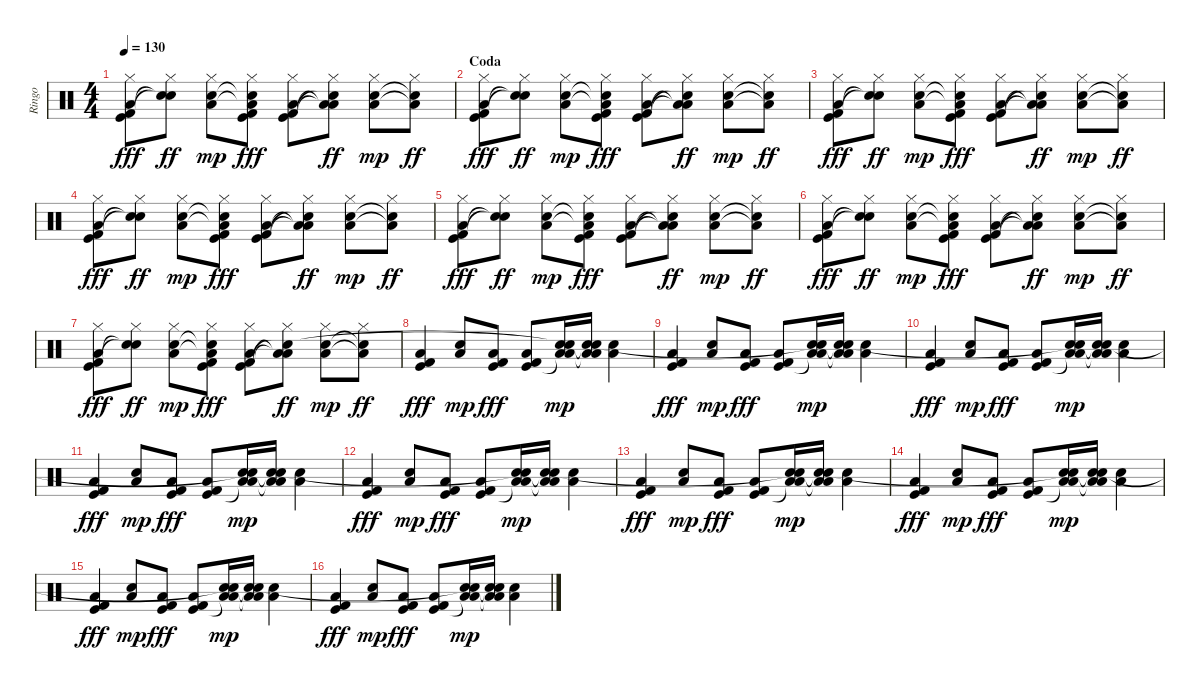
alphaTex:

\track ("Ringo" "Ringo") {instrument percussion}
\staff {score}
\articulation defaults
\ts (4 4)
\tempo 130
\clef neutral
\ks c
("Hi-Hat (closed)" "Low Floor Tom (hit)" "Kick (hit) 2" "Kick (hit)").8{dy fff} ("Hi-Hat (closed)" "Snare (hit)"{t} "Snare (hit)"{t}).8{dy ff} ("Hi-Hat (closed)" "Low Floor Tom (hit)" "Snare (hit) 2").8{dy mp} ("Hi-Hat (closed)" "Low Floor Tom (hit)"{t} "Snare (hit)"{t} "Kick (hit) 2" "Kick (hit)").8{dy fff} ("Hi-Hat (closed)" "Low Floor Tom (hit)" "Kick (hit) 2" "Kick (hit)").8 ("Hi-Hat (closed)" "Low Floor Tom (hit)"{t} "Low Floor Tom (hit)"{t} "Snare (hit)"{t}).8{dy ff} ("Hi-Hat (closed)" "Low Floor Tom (hit)" "Snare (hit) 2").8{dy mp} ("Hi-Hat (closed)" "Low Floor Tom (hit)"{t} "Snare (hit) 2"{t}).8{dy ff} |
\section ("" "Coda")
("Hi-Hat (closed)" "Low Floor Tom (hit)" "Kick (hit) 2" "Kick (hit)").8{dy fff} ("Hi-Hat (closed)" "Snare (hit)"{t} "Snare (hit)"{t}).8{dy ff} ("Hi-Hat (closed)" "Low Floor Tom (hit)" "Snare (hit) 2").8{dy mp} ("Hi-Hat (closed)" "Low Floor Tom (hit)"{t} "Snare (hit)"{t} "Kick (hit) 2" "Kick (hit)").8{dy fff} ("Hi-Hat (closed)" "Low Floor Tom (hit)" "Kick (hit) 2" "Kick (hit)").8 ("Hi-Hat (closed)" "Low Floor Tom (hit)"{t} "Low Floor Tom (hit)"{t} "Snare (hit)"{t}).8{dy ff} ("Hi-Hat (closed)" "Low Floor Tom (hit)" "Snare (hit) 2").8{dy mp} ("Hi-Hat (closed)" "Low Floor Tom (hit)"{t} "Snare (hit) 2"{t}).8{dy ff} |
("Hi-Hat (closed)" "Low Floor Tom (hit)" "Kick (hit) 2" "Kick (hit)").8{dy fff} ("Hi-Hat (closed)" "Snare (hit)"{t} "Snare (hit)"{t}).8{dy ff} ("Hi-Hat (closed)" "Low Floor Tom (hit)" "Snare (hit) 2").8{dy mp} ("Hi-Hat (closed)" "Low Floor Tom (hit)"{t} "Snare (hit)"{t} "Kick (hit) 2" "Kick (hit)").8{dy fff} ("Hi-Hat (closed)" "Low Floor Tom (hit)" "Kick (hit) 2" "Kick (hit)").8 ("Hi-Hat (closed)" "Low Floor Tom (hit)"{t} "Low Floor Tom (hit)"{t} "Snare (hit)"{t}).8{dy ff} ("Hi-Hat (closed)" "Low Floor Tom (hit)" "Snare (hit) 2").8{dy mp} ("Hi-Hat (closed)" "Low Floor Tom (hit)"{t} "Snare (hit) 2"{t}).8{dy ff} |
("Hi-Hat (closed)" "Low Floor Tom (hit)" "Kick (hit) 2" "Kick (hit)").8{dy fff} ("Hi-Hat (closed)" "Snare (hit)"{t} "Snare (hit)"{t}).8{dy ff} ("Hi-Hat (closed)" "Low Floor Tom (hit)" "Snare (hit) 2").8{dy mp} ("Hi-Hat (closed)" "Low Floor Tom (hit)"{t} "Snare (hit)"{t} "Kick (hit) 2" "Kick (hit)").8{dy fff} ("Hi-Hat (closed)" "Low Floor Tom (hit)" "Kick (hit) 2" "Kick (hit)").8 ("Hi-Hat (closed)" "Low Floor Tom (hit)"{t} "Low Floor Tom (hit)"{t} "Snare (hit)"{t}).8{dy ff} ("Hi-Hat (closed)" "Low Floor Tom (hit)" "Snare (hit) 2").8{dy mp} ("Hi-Hat (closed)" "Low Floor Tom (hit)"{t} "Snare (hit) 2"{t}).8{dy ff} |
("Hi-Hat (closed)" "Low Floor Tom (hit)" "Kick (hit) 2" "Kick (hit)").8{dy fff} ("Hi-Hat (closed)" "Snare (hit)"{t} "Snare (hit)"{t}).8{dy ff} ("Hi-Hat (closed)" "Low Floor Tom (hit)" "Snare (hit) 2").8{dy mp} ("Hi-Hat (closed)" "Low Floor Tom (hit)"{t} "Snare (hit)"{t} "Kick (hit) 2" "Kick (hit)").8{dy fff} ("Hi-Hat (closed)" "Low Floor Tom (hit)" "Kick (hit) 2" "Kick (hit)").8 ("Hi-Hat (closed)" "Low Floor Tom (hit)"{t} "Low Floor Tom (hit)"{t} "Snare (hit)"{t}).8{dy ff} ("Hi-Hat (closed)" "Low Floor Tom (hit)" "Snare (hit) 2").8{dy mp} ("Hi-Hat (closed)" "Low Floor Tom (hit)"{t} "Snare (hit) 2"{t}).8{dy ff} |
("Hi-Hat (closed)" "Low Floor Tom (hit)" "Kick (hit) 2" "Kick (hit)").8{dy fff} ("Hi-Hat (closed)" "Snare (hit)"{t} "Snare (hit)"{t}).8{dy ff} ("Hi-Hat (closed)" "Low Floor Tom (hit)" "Snare (hit) 2").8{dy mp} ("Hi-Hat (closed)" "Low Floor Tom (hit)"{t} "Snare (hit)"{t} "Kick (hit) 2" "Kick (hit)").8{dy fff} ("Hi-Hat (closed)" "Low Floor Tom (hit)" "Kick (hit) 2" "Kick (hit)").8 ("Hi-Hat (closed)" "Low Floor Tom (hit)"{t} "Low Floor Tom (hit)"{t} "Snare (hit)"{t}).8{dy ff} ("Hi-Hat (closed)" "Low Floor Tom (hit)" "Snare (hit) 2").8{dy mp} ("Hi-Hat (closed)" "Low Floor Tom (hit)"{t} "Snare (hit) 2"{t}).8{dy ff} |
("Hi-Hat (closed)" "Low Floor Tom (hit)" "Kick (hit) 2" "Kick (hit)").8{dy fff} ("Hi-Hat (closed)" "Snare (hit)"{t} "Snare (hit)"{t}).8{dy ff} ("Hi-Hat (closed)" "Low Floor Tom (hit)" "Snare (hit) 2").8{dy mp} ("Hi-Hat (closed)" "Low Floor Tom (hit)"{t} "Snare (hit)"{t} "Kick (hit) 2" "Kick (hit)").8{dy fff} ("Hi-Hat (closed)" "Low Floor Tom (hit)" "Kick (hit) 2" "Kick (hit)").8 ("Hi-Hat (closed)" "Low Floor Tom (hit)"{t} "Low Floor Tom (hit)"{t} "Snare (hit)"{t}).8{dy ff} ("Hi-Hat (closed)" "Low Floor Tom (hit)" "Snare (hit) 2").8{dy mp} ("Hi-Hat (closed)" "Low Floor Tom (hit)"{t} "Snare (hit) 2"{t}).8{dy ff} |
("Low Floor Tom (hit)" "Kick (hit) 2" "Kick (hit)").4{dy fff volume 16} ("Low Floor Tom (hit)" "Snare (hit) 2").8{dy mp} ("Low Floor Tom (hit)" "Kick (hit) 2" "Kick (hit)").8{dy fff} ("Low Floor Tom (hit)" "Kick (hit) 2" "Kick (hit)").8 ("Low Floor Tom (hit)" "Snare (hit) 2" "Low Floor Tom (hit)"{t} "Snare (hit)"{t}).16{dy mp} ("Low Floor Tom (hit)" "Snare (hit) 2" "Low Floor Tom (hit)"{t} "Snare (hit)"{t}).16 ("Low Floor Tom (hit)" "Snare (hit) 2").4 |
("Low Floor Tom (hit)" "Kick (hit) 2" "Kick (hit)").4{dy fff} ("Low Floor Tom (hit)" "Snare (hit) 2").8{dy mp} ("Low Floor Tom (hit)" "Kick (hit) 2" "Kick (hit)").8{dy fff} ("Low Floor Tom (hit)" "Kick (hit) 2" "Kick (hit)").8 ("Low Floor Tom (hit)" "Snare (hit) 2" "Low Floor Tom (hit)"{t} "Snare (hit)"{t}).16{dy mp} ("Low Floor Tom (hit)" "Snare (hit) 2" "Low Floor Tom (hit)"{t} "Snare (hit)"{t}).16 ("Low Floor Tom (hit)" "Snare (hit) 2").4 |
("Low Floor Tom (hit)" "Kick (hit) 2" "Kick (hit)").4{dy fff} ("Low Floor Tom (hit)" "Snare (hit) 2").8{dy mp} ("Low Floor Tom (hit)" "Kick (hit) 2" "Kick (hit)").8{dy fff} ("Low Floor Tom (hit)" "Kick (hit) 2" "Kick (hit)").8 ("Low Floor Tom (hit)" "Snare (hit) 2" "Low Floor Tom (hit)"{t} "Snare (hit)"{t}).16{dy mp} ("Low Floor Tom (hit)" "Snare (hit) 2" "Low Floor Tom (hit)"{t} "Snare (hit)"{t}).16 ("Low Floor Tom (hit)" "Snare (hit) 2").4 |
("Low Floor Tom (hit)" "Kick (hit) 2" "Kick (hit)").4{dy fff} ("Low Floor Tom (hit)" "Snare (hit) 2").8{dy mp} ("Low Floor Tom (hit)" "Kick (hit) 2" "Kick (hit)").8{dy fff} ("Low Floor Tom (hit)" "Kick (hit) 2" "Kick (hit)").8 ("Low Floor Tom (hit)" "Snare (hit) 2" "Low Floor Tom (hit)"{t} "Snare (hit)"{t}).16{dy mp} ("Low Floor Tom (hit)" "Snare (hit) 2" "Low Floor Tom (hit)"{t} "Snare (hit)"{t}).16 ("Low Floor Tom (hit)" "Snare (hit) 2").4 |
("Low Floor Tom (hit)" "Kick (hit) 2" "Kick (hit)").4{dy fff} ("Low Floor Tom (hit)" "Snare (hit) 2").8{dy mp} ("Low Floor Tom (hit)" "Kick (hit) 2" "Kick (hit)").8{dy fff} ("Low Floor Tom (hit)" "Kick (hit) 2" "Kick (hit)").8 ("Low Floor Tom (hit)" "Snare (hit) 2" "Low Floor Tom (hit)"{t} "Snare (hit)"{t}).16{dy mp} ("Low Floor Tom (hit)" "Snare (hit) 2" "Low Floor Tom (hit)"{t} "Snare (hit)"{t}).16 ("Low Floor Tom (hit)" "Snare (hit) 2").4 |
("Low Floor Tom (hit)" "Kick (hit) 2" "Kick (hit)").4{dy fff} ("Low Floor Tom (hit)" "Snare (hit) 2").8{dy mp} ("Low Floor Tom (hit)" "Kick (hit) 2" "Kick (hit)").8{dy fff} ("Low Floor Tom (hit)" "Kick (hit) 2" "Kick (hit)").8 ("Low Floor Tom (hit)" "Snare (hit) 2" "Low Floor Tom (hit)"{t} "Snare (hit)"{t}).16{dy mp} ("Low Floor Tom (hit)" "Snare (hit) 2" "Low Floor Tom (hit)"{t} "Snare (hit)"{t}).16 ("Low Floor Tom (hit)" "Snare (hit) 2").4 |
("Low Floor Tom (hit)" "Kick (hit) 2" "Kick (hit)").4{dy fff} ("Low Floor Tom (hit)" "Snare (hit) 2").8{dy mp} ("Low Floor Tom (hit)" "Kick (hit) 2" "Kick (hit)").8{dy fff} ("Low Floor Tom (hit)" "Kick (hit) 2" "Kick (hit)").8 ("Low Floor Tom (hit)" "Snare (hit) 2" "Low Floor Tom (hit)"{t} "Snare (hit)"{t}).16{dy mp} ("Low Floor Tom (hit)" "Snare (hit) 2" "Low Floor Tom (hit)"{t} "Snare (hit)"{t}).16 ("Low Floor Tom (hit)" "Snare (hit) 2").4 |
("Low Floor Tom (hit)" "Kick (hit) 2" "Kick (hit)").4{dy fff} ("Low Floor Tom (hit)" "Snare (hit) 2").8{dy mp} ("Low Floor Tom (hit)" "Kick (hit) 2" "Kick (hit)").8{dy fff} ("Low Floor Tom (hit)" "Kick (hit) 2" "Kick (hit)").8 ("Low Floor Tom (hit)" "Snare (hit) 2" "Low Floor Tom (hit)"{t} "Snare (hit)"{t}).16{dy mp} ("Low Floor Tom (hit)" "Snare (hit) 2" "Low Floor Tom (hit)"{t} "Snare (hit)"{t}).16 ("Low Floor Tom (hit)" "Snare (hit) 2").4 |
("Low Floor Tom (hit)" "Kick (hit) 2" "Kick (hit)").4{dy fff} ("Low Floor Tom (hit)" "Snare (hit) 2").8{dy mp} ("Low Floor Tom (hit)" "Kick (hit) 2" "Kick (hit)").8{dy fff} ("Low Floor Tom (hit)" "Kick (hit) 2" "Kick (hit)").8 ("Low Floor Tom (hit)" "Snare (hit) 2" "Low Floor Tom (hit)"{t} "Snare (hit)"{t}).16{dy mp} ("Low Floor Tom (hit)" "Snare (hit) 2" "Low Floor Tom (hit)"{t} "Snare (hit)"{t}).16 ("Low Floor Tom (hit)" "Snare (hit) 2").4
